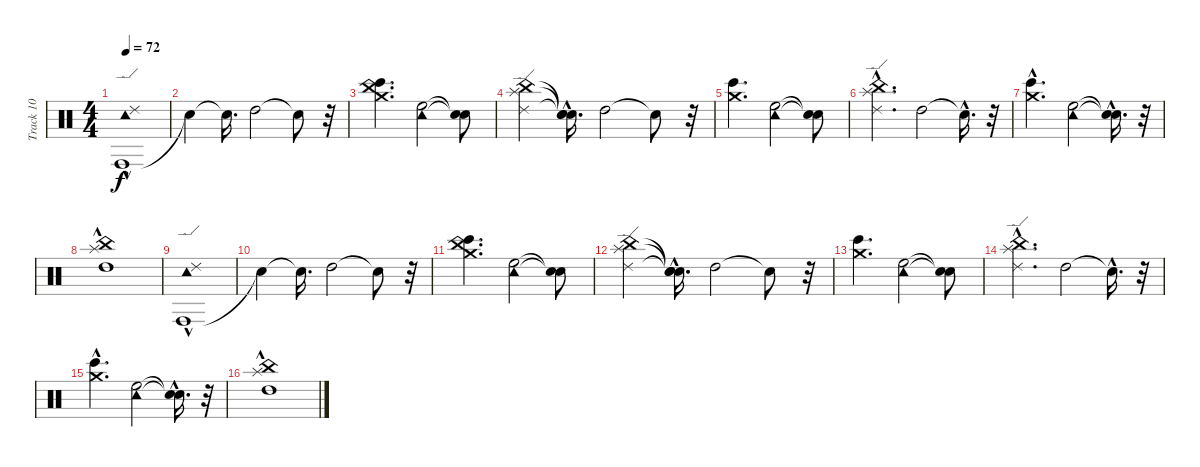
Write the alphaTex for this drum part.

\track ("Track 10" "Track 10") {instrument percussion}
\staff {score}
\articulation defaults
\ts (4 4)
\tempo 72
\clef neutral
\ks c
("Conga high (hit)"{hac} "Tambourine (hit)"{hac} "Ride (edge) 2").1{dy f} |
"Snare (hit)"{t}.4 "Snare (hit)"{t}.16{d} "High Tom (hit)".2 "Snare (hit)"{t}.8 r.32 |
("Bongo High (hit)" "Crash medium (hit)" "China (hit)").4{d} ("High Floor Tom (hit)" "Tambourine (hit)").2 ("Snare (hit)"{t} "Snare (hit)"{t}).8 |
("Splash (hit)" "China (hit)" "Ride (edge) 2").4 ("Snare (hit)"{hac t} "Snare (hit)"{t} "Snare (hit)"{hac t}).16{d} "High Tom (hit)".2 "Snare (hit)"{t}.8 r.32 |
("Bongo High (hit)" "Crash medium (hit)").4{d} ("High Floor Tom (hit)" "Tambourine (hit)").2 ("Snare (hit)"{t} "Snare (hit)"{t}).8 |
("China (hit)" "Splash (hit)"{hac} "Ride (edge) 2").4{d} "High Tom (hit)".2 "Snare (hit)"{hac t}.16{d} r.32 |
("Bongo High (hit)"{hac} "Crash medium (hit)").4{d} ("High Floor Tom (hit)" "Tambourine (hit)").2 ("Snare (hit)"{hac t} "Snare (hit)"{hac t}).16{d} r.32 |
("High Tom (hit)"{hac} "China (hit)" "Splash (hit)").1 |
("Conga high (hit)"{hac} "Tambourine (hit)"{hac} "Ride (edge) 2").1 |
"Snare (hit)"{t}.4 "Snare (hit)"{t}.16{d} "High Tom (hit)".2 "Snare (hit)"{t}.8 r.32 |
("Bongo High (hit)" "Crash medium (hit)" "China (hit)").4{d} ("High Floor Tom (hit)" "Tambourine (hit)").2 ("Snare (hit)"{t} "Snare (hit)"{t}).8 |
("Splash (hit)" "China (hit)" "Ride (edge) 2").4 ("Snare (hit)"{hac t} "Snare (hit)"{t} "Snare (hit)"{hac t}).16{d} "High Tom (hit)".2 "Snare (hit)"{t}.8 r.32 |
("Bongo High (hit)" "Crash medium (hit)").4{d} ("High Floor Tom (hit)" "Tambourine (hit)").2 ("Snare (hit)"{t} "Snare (hit)"{t}).8 |
("China (hit)" "Splash (hit)"{hac} "Ride (edge) 2").4{d} "High Tom (hit)".2 "Snare (hit)"{hac t}.16{d} r.32 |
("Bongo High (hit)"{hac} "Crash medium (hit)").4{d} ("High Floor Tom (hit)" "Tambourine (hit)").2 ("Snare (hit)"{hac t} "Snare (hit)"{hac t}).16{d} r.32 |
("High Tom (hit)"{hac} "China (hit)" "Splash (hit)").1
